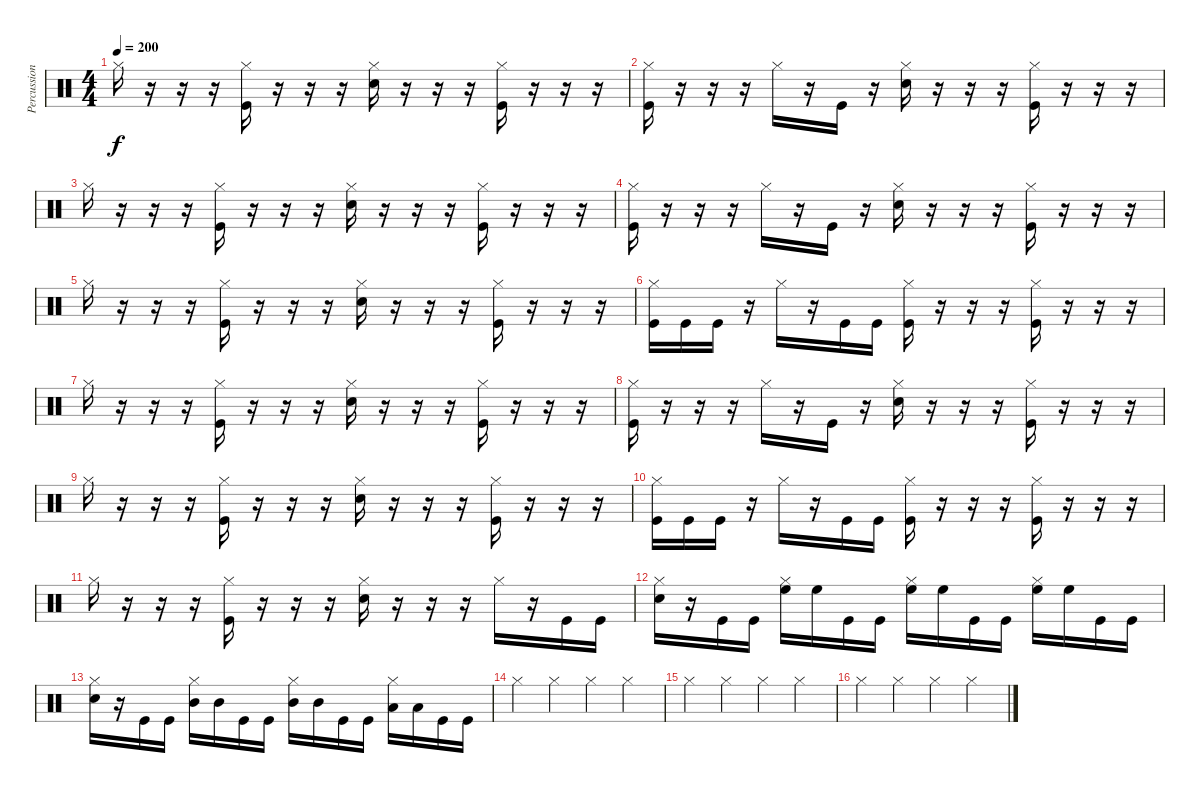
\track ("Percussion" "Percussion") {instrument percussion}
\staff {score}
\articulation defaults
\ts (4 4)
\tempo 200
\clef neutral
\ks c "Hi-Hat (closed)".16{dy f}
r.16 r.16 r.16 ("Hi-Hat (closed)" "Kick (hit)").16 r.16 r.16 r.16 ("Hi-Hat (closed)" "Electric Snare (hit)").16 r.16 r.16 r.16 ("Hi-Hat (closed)" "Kick (hit)").16 r.16 r.16 r.16 |
("Hi-Hat (closed)" "Kick (hit)").16 r.16 r.16 r.16 "Hi-Hat (closed)".16 r.16 "Kick (hit)".16 r.16 ("Hi-Hat (closed)" "Electric Snare (hit)").16 r.16 r.16 r.16 ("Hi-Hat (closed)" "Kick (hit)").16 r.16 r.16 r.16 |
"Hi-Hat (closed)".16 r.16 r.16 r.16 ("Hi-Hat (closed)" "Kick (hit)").16 r.16 r.16 r.16 ("Hi-Hat (closed)" "Electric Snare (hit)").16 r.16 r.16 r.16 ("Hi-Hat (closed)" "Kick (hit)").16 r.16 r.16 r.16 |
("Hi-Hat (closed)" "Kick (hit)").16 r.16 r.16 r.16 "Hi-Hat (closed)".16 r.16 "Kick (hit)".16 r.16 ("Hi-Hat (closed)" "Electric Snare (hit)").16 r.16 r.16 r.16 ("Hi-Hat (closed)" "Kick (hit)").16 r.16 r.16 r.16 |
"Hi-Hat (closed)".16 r.16 r.16 r.16 ("Hi-Hat (closed)" "Kick (hit)").16 r.16 r.16 r.16 ("Hi-Hat (closed)" "Electric Snare (hit)").16 r.16 r.16 r.16 ("Hi-Hat (closed)" "Kick (hit)").16 r.16 r.16 r.16 |
("Hi-Hat (closed)" "Kick (hit)").16 "Kick (hit)".16 "Kick (hit)".16 r.16 "Hi-Hat (closed)".16 r.16 "Kick (hit)".16 "Kick (hit)".16 ("Hi-Hat (closed)" "Kick (hit)").16 r.16 r.16 r.16 ("Hi-Hat (closed)" "Kick (hit)").16 r.16 r.16 r.16 |
"Hi-Hat (closed)".16 r.16 r.16 r.16 ("Hi-Hat (closed)" "Kick (hit)").16 r.16 r.16 r.16 ("Hi-Hat (closed)" "Electric Snare (hit)").16 r.16 r.16 r.16 ("Hi-Hat (closed)" "Kick (hit)").16 r.16 r.16 r.16 |
("Hi-Hat (closed)" "Kick (hit)").16 r.16 r.16 r.16 "Hi-Hat (closed)".16 r.16 "Kick (hit)".16 r.16 ("Hi-Hat (closed)" "Electric Snare (hit)").16 r.16 r.16 r.16 ("Hi-Hat (closed)" "Kick (hit)").16 r.16 r.16 r.16 |
"Hi-Hat (closed)".16 r.16 r.16 r.16 ("Hi-Hat (closed)" "Kick (hit)").16 r.16 r.16 r.16 ("Hi-Hat (closed)" "Electric Snare (hit)").16 r.16 r.16 r.16 ("Hi-Hat (closed)" "Kick (hit)").16 r.16 r.16 r.16 |
("Hi-Hat (closed)" "Kick (hit)").16 "Kick (hit)".16 "Kick (hit)".16 r.16 "Hi-Hat (closed)".16 r.16 "Kick (hit)".16 "Kick (hit)".16 ("Hi-Hat (closed)" "Kick (hit)").16 r.16 r.16 r.16 ("Hi-Hat (closed)" "Kick (hit)").16 r.16 r.16 r.16 |
"Hi-Hat (closed)".16 r.16 r.16 r.16 ("Hi-Hat (closed)" "Kick (hit)").16 r.16 r.16 r.16 ("Hi-Hat (closed)" "Electric Snare (hit)").16 r.16 r.16 r.16 "Hi-Hat (closed)".16 r.16 "Kick (hit)".16 "Kick (hit)".16 |
("Hi-Hat (closed)" "Electric Snare (hit)").16 r.16 "Kick (hit)".16 "Kick (hit)".16 ("Hi-Hat (closed)" "High Floor Tom (hit)").16 "High Floor Tom (hit)".16 "Kick (hit)".16 "Kick (hit)".16 ("Hi-Hat (closed)" "High Floor Tom (hit)").16 "High Floor Tom (hit)".16 "Kick (hit)".16 "Kick (hit)".16 ("Hi-Hat (closed)" "High Floor Tom (hit)").16 "High Floor Tom (hit)".16 "Kick (hit)".16 "Kick (hit)".16 |
("Hi-Hat (closed)" "Electric Snare (hit)").16 r.16 "Kick (hit)".16 "Kick (hit)".16 ("Hi-Hat (closed)" "Mid Tom (hit)").16 "Mid Tom (hit)".16 "Kick (hit)".16 "Kick (hit)".16 ("Hi-Hat (closed)" "Mid Tom (hit)").16 "Mid Tom (hit)".16 "Kick (hit)".16 "Kick (hit)".16 ("Hi-Hat (closed)" "Low Floor Tom (hit)").16 "Low Floor Tom (hit)".16 "Kick (hit)".16 "Kick (hit)".16 |
"Hi-Hat (closed)".4 "Hi-Hat (closed)".4 "Hi-Hat (closed)".4 "Hi-Hat (closed)".4 |
"Hi-Hat (closed)".4 "Hi-Hat (closed)".4 "Hi-Hat (closed)".4 "Hi-Hat (closed)".4 |
"Hi-Hat (closed)".4 "Hi-Hat (closed)".4 "Hi-Hat (closed)".4 "Hi-Hat (closed)".4
